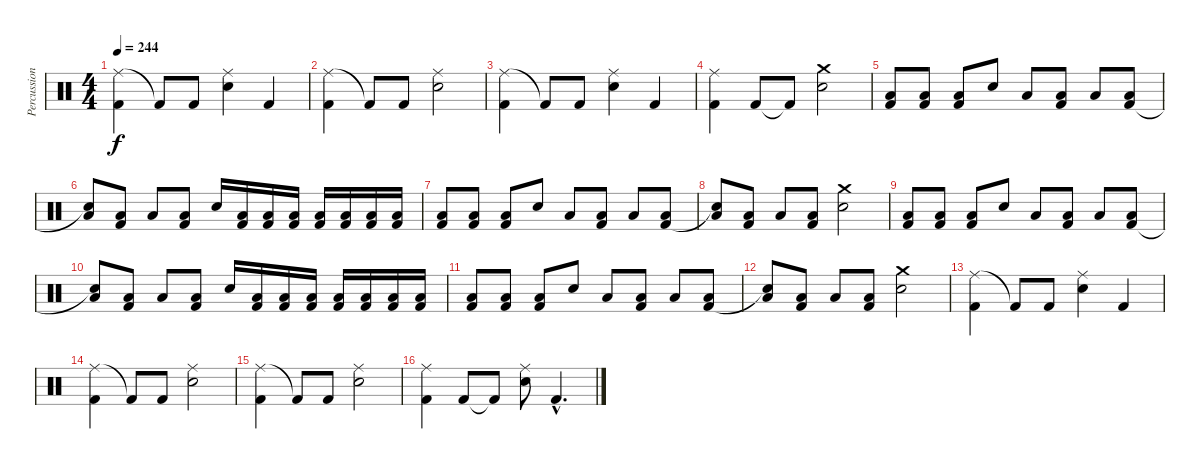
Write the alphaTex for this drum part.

\track ("Percussions" "Percussion") {instrument percussion}
\staff {score}
\articulation defaults
\ts (4 4)
\tempo 244
\clef neutral
\ks c
("Ride (middle)" "Kick (hit) 2").4{dy f} "Kick (hit) 2"{t}.8 "Kick (hit) 2".8 ("Ride (middle)" "Electric Snare (hit)").4 "Kick (hit) 2".4 |
("Ride (middle)" "Kick (hit) 2").4 "Kick (hit) 2"{t}.8 "Kick (hit) 2".8 ("Ride (middle)" "Electric Snare (hit)").2 |
("Ride (middle)" "Kick (hit) 2").4 "Kick (hit) 2"{t}.8 "Kick (hit) 2".8 ("Ride (middle)" "Electric Snare (hit)").4 "Kick (hit) 2".4 |
("Ride (middle)" "Kick (hit) 2").4 "Kick (hit) 2".8 "Kick (hit) 2"{t}.8 ("Crash medium (hit)" "Electric Snare (hit)").2 |
("Low Floor Tom (hit)" "Kick (hit) 2").8 ("Low Floor Tom (hit)" "Kick (hit) 2").8 ("Low Floor Tom (hit)" "Kick (hit) 2").8 "Electric Snare (hit)".8 "Low Floor Tom (hit)".8 ("Low Floor Tom (hit)" "Kick (hit) 2").8 "Low Floor Tom (hit)".8 ("Low Floor Tom (hit)" "Kick (hit) 2").8 |
("Low Floor Tom (hit)" "Snare (hit)"{t}).8 ("Low Floor Tom (hit)" "Kick (hit) 2").8 "Low Floor Tom (hit)".8 ("Low Floor Tom (hit)" "Kick (hit) 2").8 "Electric Snare (hit)".16 ("Low Floor Tom (hit)" "Kick (hit) 2").16 ("Low Floor Tom (hit)" "Kick (hit) 2").16 ("Low Floor Tom (hit)" "Kick (hit) 2").16 ("Low Floor Tom (hit)" "Kick (hit) 2").16 ("Low Floor Tom (hit)" "Kick (hit) 2").16 ("Low Floor Tom (hit)" "Kick (hit) 2").16 ("Low Floor Tom (hit)" "Kick (hit) 2").16 |
("Low Floor Tom (hit)" "Kick (hit) 2").8 ("Low Floor Tom (hit)" "Kick (hit) 2").8 ("Low Floor Tom (hit)" "Kick (hit) 2").8 "Electric Snare (hit)".8 "Low Floor Tom (hit)".8 ("Low Floor Tom (hit)" "Kick (hit) 2").8 "Low Floor Tom (hit)".8 ("Low Floor Tom (hit)" "Kick (hit) 2").8 |
("Low Floor Tom (hit)" "Snare (hit)"{t}).8 ("Low Floor Tom (hit)" "Kick (hit) 2").8 "Low Floor Tom (hit)".8 ("Low Floor Tom (hit)" "Kick (hit) 2").8 ("Crash medium (hit)" "Electric Snare (hit)").2 |
("Low Floor Tom (hit)" "Kick (hit) 2").8 ("Low Floor Tom (hit)" "Kick (hit) 2").8 ("Low Floor Tom (hit)" "Kick (hit) 2").8 "Electric Snare (hit)".8 "Low Floor Tom (hit)".8 ("Low Floor Tom (hit)" "Kick (hit) 2").8 "Low Floor Tom (hit)".8 ("Low Floor Tom (hit)" "Kick (hit) 2").8 |
("Low Floor Tom (hit)" "Snare (hit)"{t}).8 ("Low Floor Tom (hit)" "Kick (hit) 2").8 "Low Floor Tom (hit)".8 ("Low Floor Tom (hit)" "Kick (hit) 2").8 "Electric Snare (hit)".16 ("Low Floor Tom (hit)" "Kick (hit) 2").16 ("Low Floor Tom (hit)" "Kick (hit) 2").16 ("Low Floor Tom (hit)" "Kick (hit) 2").16 ("Low Floor Tom (hit)" "Kick (hit) 2").16 ("Low Floor Tom (hit)" "Kick (hit) 2").16 ("Low Floor Tom (hit)" "Kick (hit) 2").16 ("Low Floor Tom (hit)" "Kick (hit) 2").16 |
("Low Floor Tom (hit)" "Kick (hit) 2").8 ("Low Floor Tom (hit)" "Kick (hit) 2").8 ("Low Floor Tom (hit)" "Kick (hit) 2").8 "Electric Snare (hit)".8 "Low Floor Tom (hit)".8 ("Low Floor Tom (hit)" "Kick (hit) 2").8 "Low Floor Tom (hit)".8 ("Low Floor Tom (hit)" "Kick (hit) 2").8 |
("Low Floor Tom (hit)" "Snare (hit)"{t}).8 ("Low Floor Tom (hit)" "Kick (hit) 2").8 "Low Floor Tom (hit)".8 ("Low Floor Tom (hit)" "Kick (hit) 2").8 ("Crash medium (hit)" "Electric Snare (hit)").2 |
("Ride (middle)" "Kick (hit) 2").4 "Kick (hit) 2"{t}.8 "Kick (hit) 2".8 ("Ride (middle)" "Electric Snare (hit)").4 "Kick (hit) 2".4 |
("Ride (middle)" "Kick (hit) 2").4 "Kick (hit) 2"{t}.8 "Kick (hit) 2".8 ("Ride (middle)" "Electric Snare (hit)").2 |
("Ride (middle)" "Kick (hit) 2").4 "Kick (hit) 2"{t}.8 "Kick (hit) 2".8 ("Ride (middle)" "Electric Snare (hit)").2 |
("Ride (middle)" "Kick (hit) 2").4 "Kick (hit) 2".8 "Kick (hit) 2"{t}.8 ("Ride (middle)" "Electric Snare (hit)").8 "Kick (hit) 2"{hac}.4{d}
